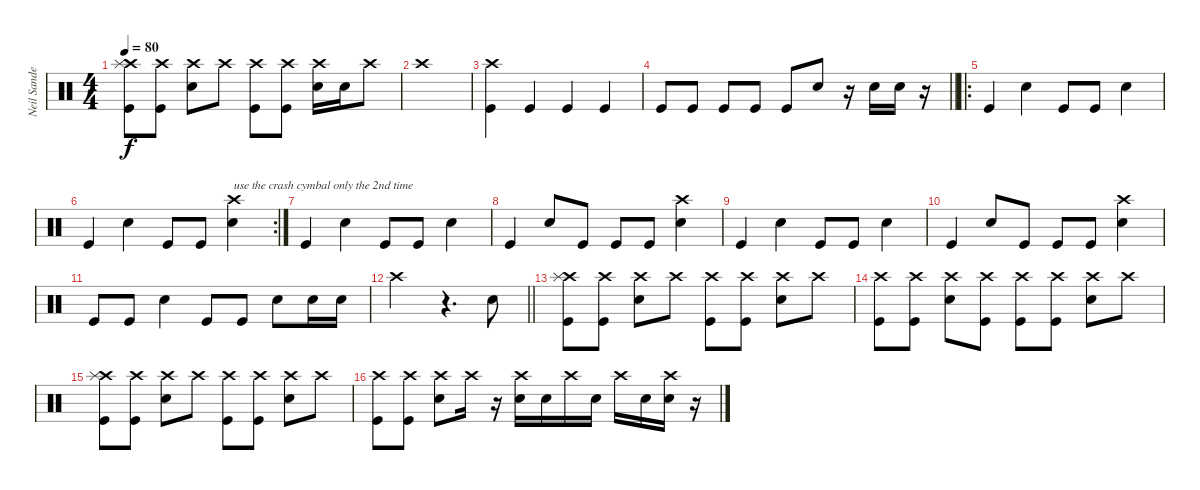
\track ("Neil Sanderson" "Neil Sande") {instrument percussion}
\staff {score}
\articulation defaults
\ts (4 4)
\tempo 80
\clef neutral
\ks c
("Crash high (hit)" "Splash (hit)" "Kick (hit)").8{dy f} ("Crash high (hit)" "Kick (hit)").8 ("Crash high (hit)" "Snare (hit) 2").8 "Crash high (hit)".8 ("Crash high (hit)" "Kick (hit)").8 ("Crash high (hit)" "Kick (hit)").8 ("Crash high (hit)" "Snare (hit) 2").16 "Snare (hit) 2".16 "Crash high (hit)".8 |
"Crash high (hit)".1 |
("Crash high (hit)" "Kick (hit)").4 "Kick (hit)".4 "Kick (hit)".4 "Kick (hit)".4 |
\barLineRight lightlight "Kick (hit)".8 "Kick (hit)".8 "Kick (hit)".8 "Kick (hit)".8 "Kick (hit)".8 "Snare (hit) 2".8
r.16 "Snare (hit) 2".16 "Snare (hit) 2".16 r.16 |
\ro "Kick (hit)".4 "Snare (hit) 2".4 "Kick (hit)".8 "Kick (hit)".8 "Snare (hit) 2".4
|
\rc 2 "Kick (hit)".4 "Snare (hit) 2".4 "Kick (hit)".8 "Kick (hit)".8
("Crash high (hit)" "Snare (hit) 2").4{txt "use the crash cymbal only the 2nd time"} |
"Kick (hit)".4 "Snare (hit) 2".4 "Kick (hit)".8 "Kick (hit)".8 "Snare (hit) 2".4 |
"Kick (hit)".4 "Snare (hit) 2".8 "Kick (hit)".8 "Kick (hit)".8 "Kick (hit)".8 ("Crash high (hit)" "Snare (hit) 2").4 |
"Kick (hit)".4 "Snare (hit) 2".4 "Kick (hit)".8 "Kick (hit)".8 "Snare (hit) 2".4 |
"Kick (hit)".4 "Snare (hit) 2".8 "Kick (hit)".8 "Kick (hit)".8 "Kick (hit)".8 ("Crash high (hit)" "Snare (hit) 2").4 |
"Kick (hit)".8 "Kick (hit)".8 "Snare (hit) 2".4 "Kick (hit)".8 "Kick (hit)".8 "Snare (hit) 2".8 "Snare (hit) 2".16 "Snare (hit) 2".16 |
\barLineRight lightlight "Crash high (hit)".2
r.4{d} "Snare (hit) 2".8 |
("Crash high (hit)" "Splash (hit)" "Kick (hit)").8 ("Crash high (hit)" "Kick (hit)").8 ("Crash high (hit)" "Snare (hit) 2").8 "Crash high (hit)".8 ("Crash high (hit)" "Kick (hit)").8 ("Crash high (hit)" "Kick (hit)").8 ("Crash high (hit)" "Snare (hit) 2").8 "Crash high (hit)".8 |
("Crash high (hit)" "Kick (hit)").8 ("Crash high (hit)" "Kick (hit)").8 ("Crash high (hit)" "Snare (hit) 2").8 ("Crash high (hit)" "Kick (hit)").8 ("Crash high (hit)" "Kick (hit)").8 ("Crash high (hit)" "Kick (hit)").8 ("Crash high (hit)" "Snare (hit) 2").8 "Crash high (hit)".8 |
("Crash high (hit)" "Splash (hit)" "Kick (hit)").8 ("Crash high (hit)" "Kick (hit)").8 ("Crash high (hit)" "Snare (hit) 2").8 "Crash high (hit)".8 ("Crash high (hit)" "Kick (hit)").8 ("Crash high (hit)" "Kick (hit)").8 ("Crash high (hit)" "Snare (hit) 2").8 "Crash high (hit)".8 |
("Crash high (hit)" "Kick (hit)").8 ("Crash high (hit)" "Kick (hit)").8 ("Crash high (hit)" "Snare (hit) 2").8 "Crash high (hit)".16 r.16 ("Crash high (hit)" "Snare (hit) 2").16 "Snare (hit) 2".16 "Crash high (hit)".16 "Snare (hit) 2".16 "Crash high (hit)".16 "Snare (hit) 2".16 ("Crash high (hit)" "Snare (hit) 2").16 r.16
